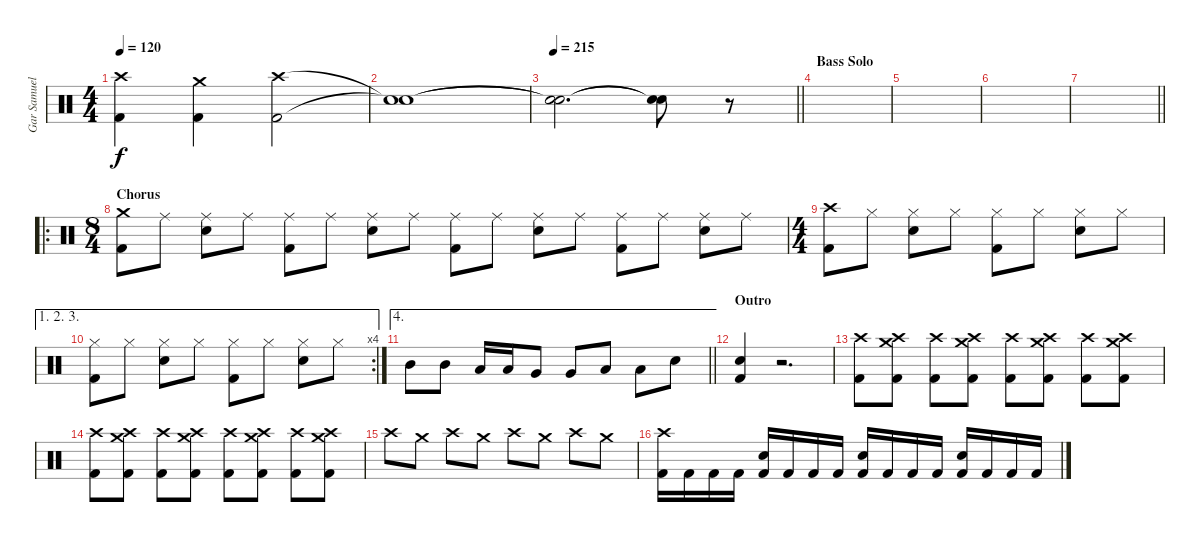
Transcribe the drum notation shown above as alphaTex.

\track ("Gar Samuelson" "Gar Samuel") {instrument percussion}
\staff
\articulation defaults
\ts (4 4)
\tempo 120
\clef neutral
\ks c
("Crash high (hit)" "Kick (hit) 2").4{dy f} ("Crash medium (hit)" "Kick (hit) 2").4 ("Crash high (hit)" "Kick (hit) 2").2 |
("Snare (hit)"{t} "Snare (hit)"{t}).1 |
\tempo 215
\barLineRight lightlight
("Snare (hit)"{t} "Snare (hit)"{t}).2{d} ("Snare (hit)"{t} "Snare (hit)"{t}).8 r.8 |
\section ("" "Bass Solo")
|
|
|
\barLineRight lightlight
|
\ro
\ts (8 4)
\section ("" "Chorus")
("Crash medium (hit)" "Kick (hit) 2").8 "Ride (middle)".8 ("Ride (middle)" "Snare (hit) 2").8 "Ride (middle)".8 ("Ride (middle)" "Kick (hit) 2").8 "Ride (middle)".8 ("Ride (middle)" "Snare (hit) 2").8 "Ride (middle)".8 ("Ride (middle)" "Kick (hit) 2").8 "Ride (middle)".8 ("Ride (middle)" "Snare (hit) 2").8 "Ride (middle)".8 ("Ride (middle)" "Kick (hit) 2").8 "Ride (middle)".8 ("Ride (middle)" "Snare (hit) 2").8 "Ride (middle)".8 |
\ts (4 4)
("Crash high (hit)" "Kick (hit) 2").8 "Hi-Hat (closed)".8 ("Hi-Hat (closed)" "Snare (hit) 2").8 "Hi-Hat (closed)".8 ("Hi-Hat (closed)" "Kick (hit) 2").8 "Hi-Hat (closed)".8 ("Hi-Hat (closed)" "Snare (hit) 2").8 "Hi-Hat (closed)".8 |
\ae (1 2 3)
\rc 4
("Hi-Hat (closed)" "Kick (hit) 2").8 "Hi-Hat (closed)".8 ("Hi-Hat (closed)" "Snare (hit) 2").8 "Hi-Hat (closed)".8 ("Hi-Hat (closed)" "Kick (hit) 2").8 "Hi-Hat (closed)".8 ("Hi-Hat (closed)" "Snare (hit) 2").8 "Hi-Hat (closed)".8 |
\ae 4
\barLineRight lightlight "Mid Tom (hit)".8 "Mid Tom (hit)".8 "Low Tom (hit)".16 "Low Tom (hit)".16 "Very Low Tom (hit)".8 "Very Low Tom (hit)".8 "Low Floor Tom (hit)".8 "Low Floor Tom (hit)".8 "Snare (hit) 2".8
|
\section ("" "Outro")
("Snare (hit) 2" "Kick (hit) 2").4 r.2{d} |
("Crash high (hit)" "Kick (hit) 2").8 ("Crash medium (hit)" "Crash high (hit)" "Kick (hit) 2").8 ("Crash high (hit)" "Kick (hit) 2").8 ("Crash medium (hit)" "Crash high (hit)" "Kick (hit) 2").8 ("Crash high (hit)" "Kick (hit) 2").8 ("Crash medium (hit)" "Crash high (hit)" "Kick (hit) 2").8 ("Crash high (hit)" "Kick (hit) 2").8 ("Crash medium (hit)" "Crash high (hit)" "Kick (hit) 2").8 |
("Crash high (hit)" "Kick (hit) 2").8 ("Crash medium (hit)" "Crash high (hit)" "Kick (hit) 2").8 ("Crash high (hit)" "Kick (hit) 2").8 ("Crash medium (hit)" "Crash high (hit)" "Kick (hit) 2").8 ("Crash high (hit)" "Kick (hit) 2").8 ("Crash medium (hit)" "Crash high (hit)" "Kick (hit) 2").8 ("Crash high (hit)" "Kick (hit) 2").8 ("Crash medium (hit)" "Crash high (hit)" "Kick (hit) 2").8 |
"Crash high (hit)".8 "Crash medium (hit)".8 "Crash high (hit)".8 "Crash medium (hit)".8 "Crash high (hit)".8 "Crash medium (hit)".8 "Crash high (hit)".8 "Crash medium (hit)".8 |
("Crash high (hit)" "Kick (hit) 2").16 "Kick (hit) 2".16 "Kick (hit) 2".16 "Kick (hit) 2".16 ("Snare (hit) 2" "Kick (hit) 2").16 "Kick (hit) 2".16 "Kick (hit) 2".16 "Kick (hit) 2".16 ("Snare (hit) 2" "Kick (hit) 2").16 "Kick (hit) 2".16 "Kick (hit) 2".16 "Kick (hit) 2".16 ("Snare (hit) 2" "Kick (hit) 2").16 "Kick (hit) 2".16 "Kick (hit) 2".16 "Kick (hit) 2".16
